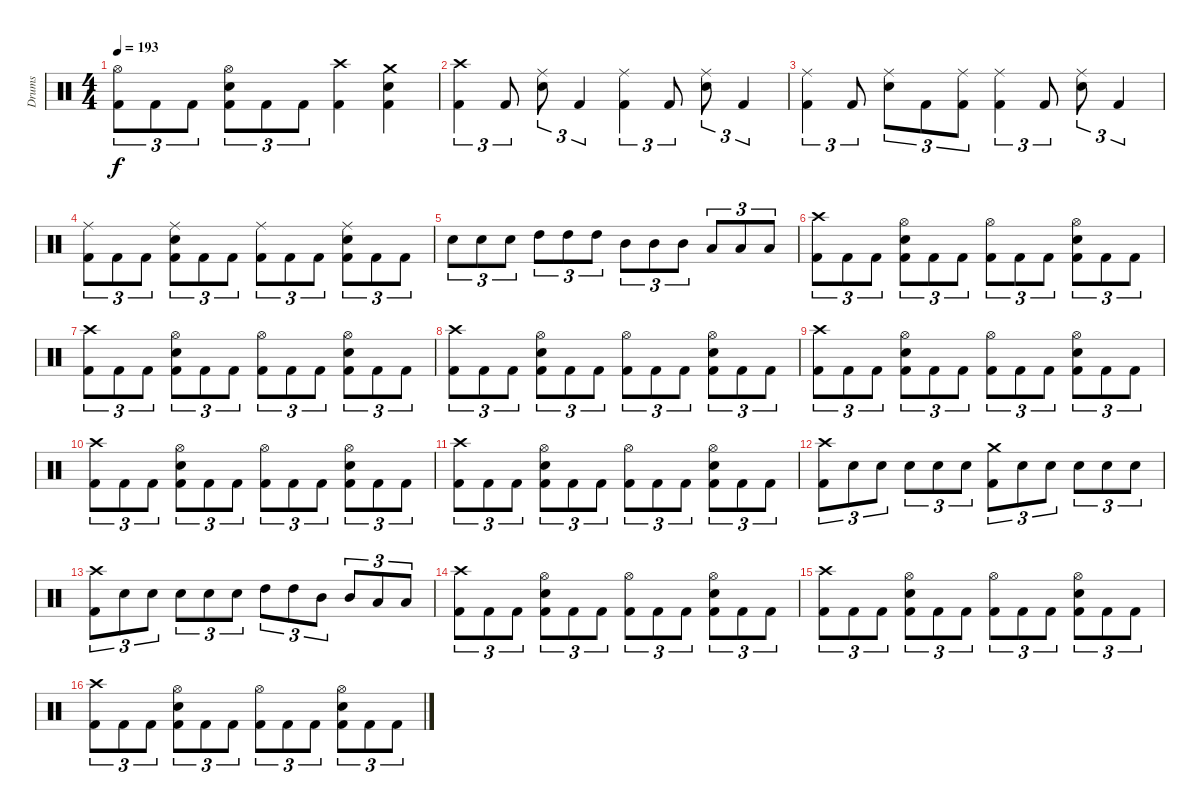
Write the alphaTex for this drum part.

\track ("Drums" "Drums") {instrument percussion}
\staff {score}
\articulation defaults
\ts (4 4)
\tempo 193
\clef neutral
\ks c
("Hi-Hat (open)" "Kick (hit) 2").8{tu (3 2) dy f} "Kick (hit) 2".8{tu (3 2)} "Kick (hit) 2".8{tu (3 2)} ("Hi-Hat (open)" "Electric Snare (hit)" "Kick (hit) 2").8{tu (3 2)} "Kick (hit) 2".8{tu (3 2)} "Kick (hit) 2".8{tu (3 2)} ("Crash high (hit)" "Kick (hit) 2").4 ("Crash medium (hit)" "Electric Snare (hit)" "Kick (hit) 2").4 |
("Crash high (hit)" "Kick (hit) 2").4{tu (3 2)} "Kick (hit) 2".8{tu (3 2)} ("Ride (middle)" "Electric Snare (hit)").8{tu (3 2)} "Kick (hit) 2".4{tu (3 2)} ("Ride (middle)" "Kick (hit) 2").4{tu (3 2)} "Kick (hit) 2".8{tu (3 2)} ("Ride (middle)" "Electric Snare (hit)").8{tu (3 2)} "Kick (hit) 2".4{tu (3 2)} |
("Ride (middle)" "Kick (hit) 2").4{tu (3 2)} "Kick (hit) 2".8{tu (3 2)} ("Ride (middle)" "Electric Snare (hit)").8{tu (3 2)} "Kick (hit) 2".8{tu (3 2)} ("Ride (middle)" "Kick (hit) 2").8{tu (3 2)} ("Ride (middle)" "Kick (hit) 2").4{tu (3 2)} "Kick (hit) 2".8{tu (3 2)} ("Ride (middle)" "Electric Snare (hit)").8{tu (3 2)} "Kick (hit) 2".4{tu (3 2)} |
("Ride (middle)" "Kick (hit) 2").8{tu (3 2)} "Kick (hit) 2".8{tu (3 2)} "Kick (hit) 2".8{tu (3 2)} ("Ride (middle)" "Electric Snare (hit)" "Kick (hit) 2").8{tu (3 2)} "Kick (hit) 2".8{tu (3 2)} "Kick (hit) 2".8{tu (3 2)} ("Ride (middle)" "Kick (hit) 2").8{tu (3 2)} "Kick (hit) 2".8{tu (3 2)} "Kick (hit) 2".8{tu (3 2)} ("Ride (middle)" "Electric Snare (hit)" "Kick (hit) 2").8{tu (3 2)} "Kick (hit) 2".8{tu (3 2)} "Kick (hit) 2".8{tu (3 2)} |
"Electric Snare (hit)".8{tu (3 2)} "Electric Snare (hit)".8{tu (3 2)} "Electric Snare (hit)".8{tu (3 2)} "High Tom (hit)".8{tu (3 2)} "High Tom (hit)".8{tu (3 2)} "High Tom (hit)".8{tu (3 2)} "Mid Tom (hit)".8{tu (3 2)} "Mid Tom (hit)".8{tu (3 2)} "Mid Tom (hit)".8{tu (3 2)} "Low Tom (hit)".8{tu (3 2)} "Low Tom (hit)".8{tu (3 2)} "Low Tom (hit)".8{tu (3 2)} |
("Crash high (hit)" "Kick (hit) 2").8{tu (3 2)} "Kick (hit) 2".8{tu (3 2)} "Kick (hit) 2".8{tu (3 2)} ("Hi-Hat (open)" "Electric Snare (hit)" "Kick (hit) 2").8{tu (3 2)} "Kick (hit) 2".8{tu (3 2)} "Kick (hit) 2".8{tu (3 2)} ("Hi-Hat (open)" "Kick (hit) 2").8{tu (3 2)} "Kick (hit) 2".8{tu (3 2)} "Kick (hit) 2".8{tu (3 2)} ("Hi-Hat (open)" "Electric Snare (hit)" "Kick (hit) 2").8{tu (3 2)} "Kick (hit) 2".8{tu (3 2)} "Kick (hit) 2".8{tu (3 2)} |
("Crash high (hit)" "Kick (hit) 2").8{tu (3 2)} "Kick (hit) 2".8{tu (3 2)} "Kick (hit) 2".8{tu (3 2)} ("Hi-Hat (open)" "Electric Snare (hit)" "Kick (hit) 2").8{tu (3 2)} "Kick (hit) 2".8{tu (3 2)} "Kick (hit) 2".8{tu (3 2)} ("Hi-Hat (open)" "Kick (hit) 2").8{tu (3 2)} "Kick (hit) 2".8{tu (3 2)} "Kick (hit) 2".8{tu (3 2)} ("Hi-Hat (open)" "Electric Snare (hit)" "Kick (hit) 2").8{tu (3 2)} "Kick (hit) 2".8{tu (3 2)} "Kick (hit) 2".8{tu (3 2)} |
("Crash high (hit)" "Kick (hit) 2").8{tu (3 2)} "Kick (hit) 2".8{tu (3 2)} "Kick (hit) 2".8{tu (3 2)} ("Hi-Hat (open)" "Electric Snare (hit)" "Kick (hit) 2").8{tu (3 2)} "Kick (hit) 2".8{tu (3 2)} "Kick (hit) 2".8{tu (3 2)} ("Hi-Hat (open)" "Kick (hit) 2").8{tu (3 2)} "Kick (hit) 2".8{tu (3 2)} "Kick (hit) 2".8{tu (3 2)} ("Hi-Hat (open)" "Electric Snare (hit)" "Kick (hit) 2").8{tu (3 2)} "Kick (hit) 2".8{tu (3 2)} "Kick (hit) 2".8{tu (3 2)} |
("Crash high (hit)" "Kick (hit) 2").8{tu (3 2)} "Kick (hit) 2".8{tu (3 2)} "Kick (hit) 2".8{tu (3 2)} ("Hi-Hat (open)" "Electric Snare (hit)" "Kick (hit) 2").8{tu (3 2)} "Kick (hit) 2".8{tu (3 2)} "Kick (hit) 2".8{tu (3 2)} ("Hi-Hat (open)" "Kick (hit) 2").8{tu (3 2)} "Kick (hit) 2".8{tu (3 2)} "Kick (hit) 2".8{tu (3 2)} ("Hi-Hat (open)" "Electric Snare (hit)" "Kick (hit) 2").8{tu (3 2)} "Kick (hit) 2".8{tu (3 2)} "Kick (hit) 2".8{tu (3 2)} |
("Crash high (hit)" "Kick (hit) 2").8{tu (3 2)} "Kick (hit) 2".8{tu (3 2)} "Kick (hit) 2".8{tu (3 2)} ("Hi-Hat (open)" "Electric Snare (hit)" "Kick (hit) 2").8{tu (3 2)} "Kick (hit) 2".8{tu (3 2)} "Kick (hit) 2".8{tu (3 2)} ("Hi-Hat (open)" "Kick (hit) 2").8{tu (3 2)} "Kick (hit) 2".8{tu (3 2)} "Kick (hit) 2".8{tu (3 2)} ("Hi-Hat (open)" "Electric Snare (hit)" "Kick (hit) 2").8{tu (3 2)} "Kick (hit) 2".8{tu (3 2)} "Kick (hit) 2".8{tu (3 2)} |
("Crash high (hit)" "Kick (hit) 2").8{tu (3 2)} "Kick (hit) 2".8{tu (3 2)} "Kick (hit) 2".8{tu (3 2)} ("Hi-Hat (open)" "Electric Snare (hit)" "Kick (hit) 2").8{tu (3 2)} "Kick (hit) 2".8{tu (3 2)} "Kick (hit) 2".8{tu (3 2)} ("Hi-Hat (open)" "Kick (hit) 2").8{tu (3 2)} "Kick (hit) 2".8{tu (3 2)} "Kick (hit) 2".8{tu (3 2)} ("Hi-Hat (open)" "Electric Snare (hit)" "Kick (hit) 2").8{tu (3 2)} "Kick (hit) 2".8{tu (3 2)} "Kick (hit) 2".8{tu (3 2)} |
("Crash high (hit)" "Kick (hit) 2").8{tu (3 2)} "Electric Snare (hit)".8{tu (3 2)} "Electric Snare (hit)".8{tu (3 2)} "Electric Snare (hit)".8{tu (3 2)} "Electric Snare (hit)".8{tu (3 2)} "Electric Snare (hit)".8{tu (3 2)} ("Crash medium (hit)" "Kick (hit) 2").8{tu (3 2)} "Electric Snare (hit)".8{tu (3 2)} "Electric Snare (hit)".8{tu (3 2)} "Electric Snare (hit)".8{tu (3 2)} "Electric Snare (hit)".8{tu (3 2)} "Electric Snare (hit)".8{tu (3 2)} |
("Crash high (hit)" "Kick (hit) 2").8{tu (3 2)} "Electric Snare (hit)".8{tu (3 2)} "Electric Snare (hit)".8{tu (3 2)} "Electric Snare (hit)".8{tu (3 2)} "Electric Snare (hit)".8{tu (3 2)} "Electric Snare (hit)".8{tu (3 2)} "High Tom (hit)".8{tu (3 2)} "High Tom (hit)".8{tu (3 2)} "Mid Tom (hit)".8{tu (3 2)} "Mid Tom (hit)".8{tu (3 2)} "Low Tom (hit)".8{tu (3 2)} "Low Tom (hit)".8{tu (3 2)} |
("Crash high (hit)" "Kick (hit) 2").8{tu (3 2)} "Kick (hit) 2".8{tu (3 2)} "Kick (hit) 2".8{tu (3 2)} ("Hi-Hat (open)" "Electric Snare (hit)" "Kick (hit) 2").8{tu (3 2)} "Kick (hit) 2".8{tu (3 2)} "Kick (hit) 2".8{tu (3 2)} ("Hi-Hat (open)" "Kick (hit) 2").8{tu (3 2)} "Kick (hit) 2".8{tu (3 2)} "Kick (hit) 2".8{tu (3 2)} ("Hi-Hat (open)" "Electric Snare (hit)" "Kick (hit) 2").8{tu (3 2)} "Kick (hit) 2".8{tu (3 2)} "Kick (hit) 2".8{tu (3 2)} |
("Crash high (hit)" "Kick (hit) 2").8{tu (3 2)} "Kick (hit) 2".8{tu (3 2)} "Kick (hit) 2".8{tu (3 2)} ("Hi-Hat (open)" "Electric Snare (hit)" "Kick (hit) 2").8{tu (3 2)} "Kick (hit) 2".8{tu (3 2)} "Kick (hit) 2".8{tu (3 2)} ("Hi-Hat (open)" "Kick (hit) 2").8{tu (3 2)} "Kick (hit) 2".8{tu (3 2)} "Kick (hit) 2".8{tu (3 2)} ("Hi-Hat (open)" "Electric Snare (hit)" "Kick (hit) 2").8{tu (3 2)} "Kick (hit) 2".8{tu (3 2)} "Kick (hit) 2".8{tu (3 2)} |
("Crash high (hit)" "Kick (hit) 2").8{tu (3 2)} "Kick (hit) 2".8{tu (3 2)} "Kick (hit) 2".8{tu (3 2)} ("Hi-Hat (open)" "Electric Snare (hit)" "Kick (hit) 2").8{tu (3 2)} "Kick (hit) 2".8{tu (3 2)} "Kick (hit) 2".8{tu (3 2)} ("Hi-Hat (open)" "Kick (hit) 2").8{tu (3 2)} "Kick (hit) 2".8{tu (3 2)} "Kick (hit) 2".8{tu (3 2)} ("Hi-Hat (open)" "Electric Snare (hit)" "Kick (hit) 2").8{tu (3 2)} "Kick (hit) 2".8{tu (3 2)} "Kick (hit) 2".8{tu (3 2)}
